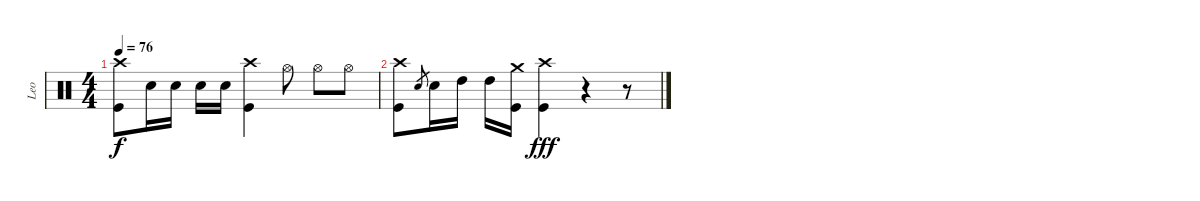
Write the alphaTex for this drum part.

\track ("Leo" "Leo") {instrument percussion}
\staff {score}
\articulation defaults
\ts (4 4)
\tempo 76
\clef neutral
\ks c
("Crash high (hit)" "Kick (hit)").8{dy f} "Electric Snare (hit)".16 "Electric Snare (hit)".16 "Electric Snare (hit)".16 "Electric Snare (hit)".16 ("Crash high (hit)" "Kick (hit)").4 "Hi-Hat (open)".8 "Hi-Hat (open)".8 "Hi-Hat (open)".8 |
("Crash high (hit)" "Kick (hit)").8 "Electric Snare (hit)".8{gr} "Electric Snare (hit)".16 "High Tom (hit)".16 "High Tom (hit)".16 ("Crash medium (hit)" "Kick (hit)").16 ("Crash high (hit)" "Kick (hit)").4{dy fff} r.4 r.8
